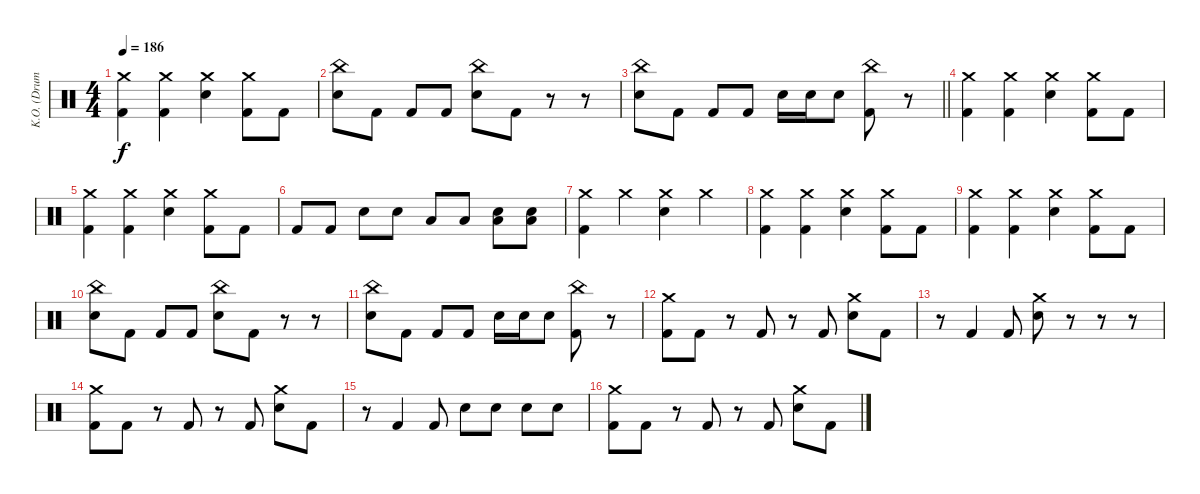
\track ("K.O. (Drums)" "K.O. (Drum") {instrument percussion}
\staff {score}
\articulation defaults
\ts (4 4)
\tempo 186
\clef neutral
\ks c
("Crash medium (hit)" "Kick (hit) 2").4{dy f} ("Crash medium (hit)" "Kick (hit) 2").4 ("Crash medium (hit)" "Electric Snare (hit)").4 ("Crash medium (hit)" "Kick (hit) 2").8 "Kick (hit) 2".8 |
("China (hit)" "Electric Snare (hit)").8 "Kick (hit) 2".8 "Kick (hit) 2".8 "Kick (hit) 2".8 ("China (hit)" "Electric Snare (hit)").8 "Kick (hit) 2".8 r.8 r.8 |
\barLineRight lightlight
("China (hit)" "Electric Snare (hit)").8 "Kick (hit) 2".8 "Kick (hit) 2".8 "Kick (hit) 2".8 "Electric Snare (hit)".16 "Electric Snare (hit)".16 "Electric Snare (hit)".8 ("China (hit)" "Kick (hit) 2").8 r.8 |
("Crash medium (hit)" "Kick (hit) 2").4 ("Crash medium (hit)" "Kick (hit) 2").4 ("Crash medium (hit)" "Electric Snare (hit)").4 ("Crash medium (hit)" "Kick (hit) 2").8 "Kick (hit) 2".8 |
("Crash medium (hit)" "Kick (hit) 2").4 ("Crash medium (hit)" "Kick (hit) 2").4 ("Crash medium (hit)" "Electric Snare (hit)").4 ("Crash medium (hit)" "Kick (hit) 2").8 "Kick (hit) 2".8 |
"Kick (hit) 2".8 "Kick (hit) 2".8 "Electric Snare (hit)".8 "Electric Snare (hit)".8 "Low Tom (hit)".8 "Low Tom (hit)".8 ("Low Floor Tom (hit)" "Electric Snare (hit)").8 ("Low Floor Tom (hit)" "Electric Snare (hit)").8 |
("Crash medium (hit)" "Kick (hit) 2").4 "Crash medium (hit)".4 ("Crash medium (hit)" "Electric Snare (hit)").4 "Crash medium (hit)".4 |
("Crash medium (hit)" "Kick (hit) 2").4 ("Crash medium (hit)" "Kick (hit) 2").4 ("Crash medium (hit)" "Electric Snare (hit)").4 ("Crash medium (hit)" "Kick (hit) 2").8 "Kick (hit) 2".8 |
("Crash medium (hit)" "Kick (hit) 2").4 ("Crash medium (hit)" "Kick (hit) 2").4 ("Crash medium (hit)" "Electric Snare (hit)").4 ("Crash medium (hit)" "Kick (hit) 2").8 "Kick (hit) 2".8 |
("China (hit)" "Electric Snare (hit)").8 "Kick (hit) 2".8 "Kick (hit) 2".8 "Kick (hit) 2".8 ("China (hit)" "Electric Snare (hit)").8 "Kick (hit) 2".8 r.8 r.8 |
("China (hit)" "Electric Snare (hit)").8 "Kick (hit) 2".8 "Kick (hit) 2".8 "Kick (hit) 2".8 "Electric Snare (hit)".16 "Electric Snare (hit)".16 "Electric Snare (hit)".8 ("China (hit)" "Kick (hit) 2").8 r.8 |
("Crash medium (hit)" "Kick (hit) 2").8 "Kick (hit) 2".8 r.8 "Kick (hit) 2".8 r.8 "Kick (hit) 2".8 ("Crash medium (hit)" "Electric Snare (hit)").8 "Kick (hit) 2".8 |
r.8 "Kick (hit) 2".4 "Kick (hit) 2".8 ("Crash medium (hit)" "Electric Snare (hit)").8 r.8 r.8 r.8 |
("Crash medium (hit)" "Kick (hit) 2").8 "Kick (hit) 2".8 r.8 "Kick (hit) 2".8 r.8 "Kick (hit) 2".8 ("Crash medium (hit)" "Electric Snare (hit)").8 "Kick (hit) 2".8 |
r.8 "Kick (hit) 2".4 "Kick (hit) 2".8 "Electric Snare (hit)".8 "Electric Snare (hit)".8 "Electric Snare (hit)".8 "Electric Snare (hit)".8 |
("Crash medium (hit)" "Kick (hit) 2").8 "Kick (hit) 2".8 r.8 "Kick (hit) 2".8 r.8 "Kick (hit) 2".8 ("Crash medium (hit)" "Electric Snare (hit)").8 "Kick (hit) 2".8
